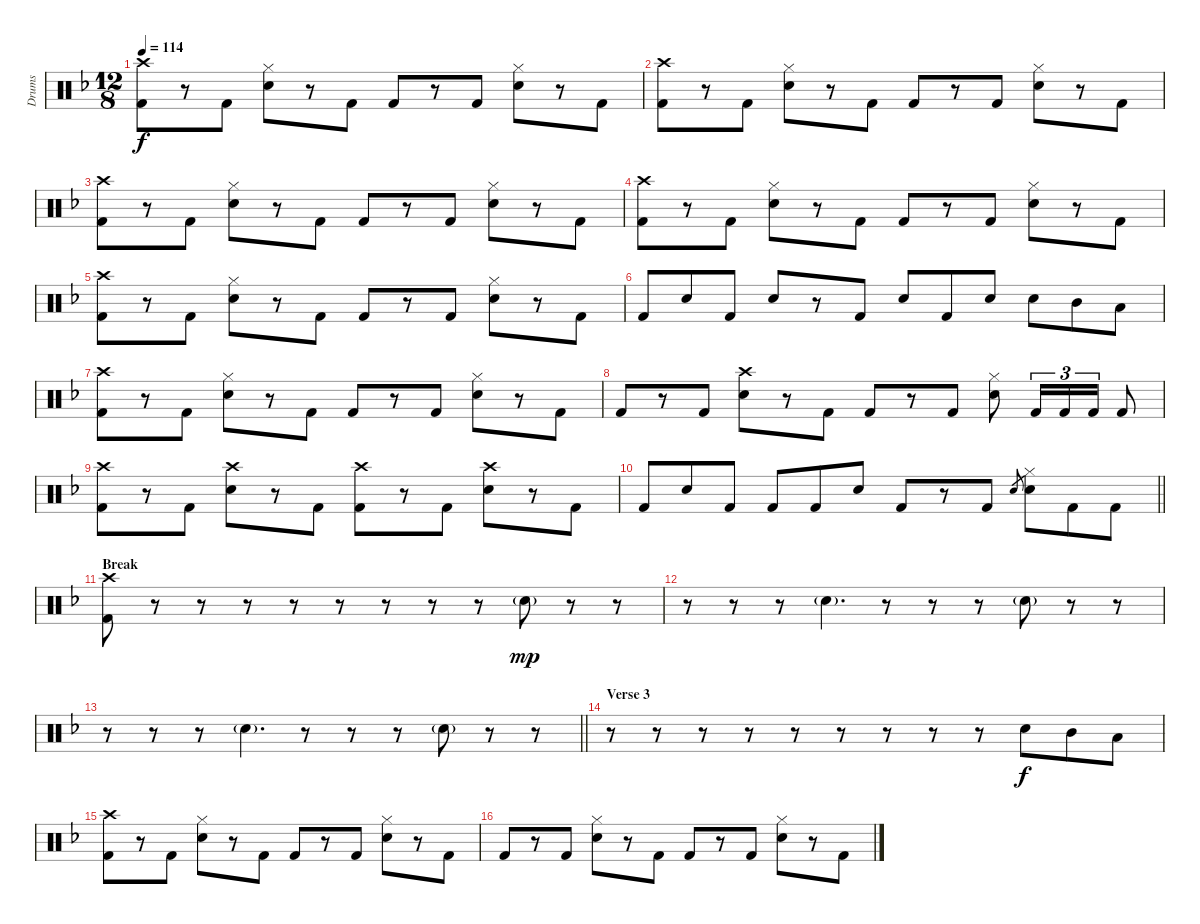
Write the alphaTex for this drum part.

\track ("Drums" "Drums") {instrument percussion}
\staff {score}
\articulation defaults
\ts (12 8)
\tempo 114
\clef neutral
\ks f
("Crash high (hit)" "Kick (hit) 2").8{dy f} r.8 "Kick (hit) 2".8 ("Hi-Hat (closed)" "Electric Snare (hit)").8 r.8 "Kick (hit) 2".8 "Kick (hit) 2".8 r.8 "Kick (hit) 2".8 ("Hi-Hat (closed)" "Electric Snare (hit)").8 r.8 "Kick (hit) 2".8 |
("Crash high (hit)" "Kick (hit) 2").8 r.8 "Kick (hit) 2".8 ("Hi-Hat (closed)" "Electric Snare (hit)").8 r.8 "Kick (hit) 2".8 "Kick (hit) 2".8 r.8 "Kick (hit) 2".8 ("Hi-Hat (closed)" "Electric Snare (hit)").8 r.8 "Kick (hit) 2".8 |
("Crash high (hit)" "Kick (hit) 2").8 r.8 "Kick (hit) 2".8 ("Hi-Hat (closed)" "Electric Snare (hit)").8 r.8 "Kick (hit) 2".8 "Kick (hit) 2".8 r.8 "Kick (hit) 2".8 ("Hi-Hat (closed)" "Electric Snare (hit)").8 r.8 "Kick (hit) 2".8 |
("Crash high (hit)" "Kick (hit) 2").8 r.8 "Kick (hit) 2".8 ("Hi-Hat (closed)" "Electric Snare (hit)").8 r.8 "Kick (hit) 2".8 "Kick (hit) 2".8 r.8 "Kick (hit) 2".8 ("Hi-Hat (closed)" "Electric Snare (hit)").8 r.8 "Kick (hit) 2".8 |
("Crash high (hit)" "Kick (hit) 2").8 r.8 "Kick (hit) 2".8 ("Hi-Hat (closed)" "Electric Snare (hit)").8 r.8 "Kick (hit) 2".8 "Kick (hit) 2".8 r.8 "Kick (hit) 2".8 ("Hi-Hat (closed)" "Electric Snare (hit)").8 r.8 "Kick (hit) 2".8 |
"Kick (hit) 2".8 "Electric Snare (hit)".8 "Kick (hit) 2".8 "Electric Snare (hit)".8 r.8 "Kick (hit) 2".8 "Electric Snare (hit)".8 "Kick (hit) 2".8 "Electric Snare (hit)".8 "Electric Snare (hit)".8 "Mid Tom (hit)".8 "Low Tom (hit)".8 |
("Crash high (hit)" "Kick (hit) 2").8 r.8 "Kick (hit) 2".8 ("Hi-Hat (closed)" "Electric Snare (hit)").8 r.8 "Kick (hit) 2".8 "Kick (hit) 2".8 r.8 "Kick (hit) 2".8 ("Hi-Hat (closed)" "Electric Snare (hit)").8 r.8 "Kick (hit) 2".8 |
"Kick (hit) 2".8 r.8 "Kick (hit) 2".8 ("Crash high (hit)" "Electric Snare (hit)").8 r.8 "Kick (hit) 2".8 "Kick (hit) 2".8 r.8 "Kick (hit) 2".8 ("Hi-Hat (closed)" "Electric Snare (hit)").8 "Kick (hit) 2".16{tu (3 2)} "Kick (hit) 2".16{tu (3 2)} "Kick (hit) 2".16{tu (3 2)} "Kick (hit) 2".8 |
("Crash high (hit)" "Kick (hit) 2").8 r.8 "Kick (hit) 2".8 ("Crash high (hit)" "Electric Snare (hit)").8 r.8 "Kick (hit) 2".8 ("Crash high (hit)" "Kick (hit) 2").8 r.8 "Kick (hit) 2".8 ("Crash high (hit)" "Electric Snare (hit)").8 r.8 "Kick (hit) 2".8 |
\barLineRight lightlight "Kick (hit) 2".8 "Electric Snare (hit)".8 "Kick (hit) 2".8 "Kick (hit) 2".8 "Kick (hit) 2".8 "Electric Snare (hit)".8 "Kick (hit) 2".8
r.8 "Kick (hit) 2".8 "Electric Snare (hit)".8{gr} ("Hi-Hat (closed)" "Electric Snare (hit)").8 "Kick (hit) 2".8 "Kick (hit) 2".8 |
\section ("" "Break")
("Crash high (hit)" "Kick (hit) 2").8 r.8 r.8 r.8 r.8 r.8 r.8 r.8 r.8 "Hand Clap (hit)"{g}.8{dy mp} r.8 r.8 |
r.8 r.8 r.8 "Hand Clap (hit)"{g}.4{d} r.8 r.8 r.8 "Hand Clap (hit)"{g}.8 r.8 r.8 |
\barLineRight lightlight
r.8 r.8 r.8 "Hand Clap (hit)"{g}.4{d} r.8 r.8 r.8 "Hand Clap (hit)"{g}.8 r.8 r.8 |
\section ("" "Verse 3")
r.8 r.8 r.8 r.8 r.8 r.8 r.8 r.8 r.8 "Electric Snare (hit)".8{dy f} "Mid Tom (hit)".8 "Low Tom (hit)".8 |
("Crash high (hit)" "Kick (hit) 2").8 r.8 "Kick (hit) 2".8 ("Hi-Hat (closed)" "Electric Snare (hit)").8 r.8 "Kick (hit) 2".8 "Kick (hit) 2".8 r.8 "Kick (hit) 2".8 ("Hi-Hat (closed)" "Electric Snare (hit)").8 r.8 "Kick (hit) 2".8 |
"Kick (hit) 2".8 r.8 "Kick (hit) 2".8 ("Hi-Hat (closed)" "Electric Snare (hit)").8 r.8 "Kick (hit) 2".8 "Kick (hit) 2".8 r.8 "Kick (hit) 2".8 ("Hi-Hat (closed)" "Electric Snare (hit)").8 r.8 "Kick (hit) 2".8
